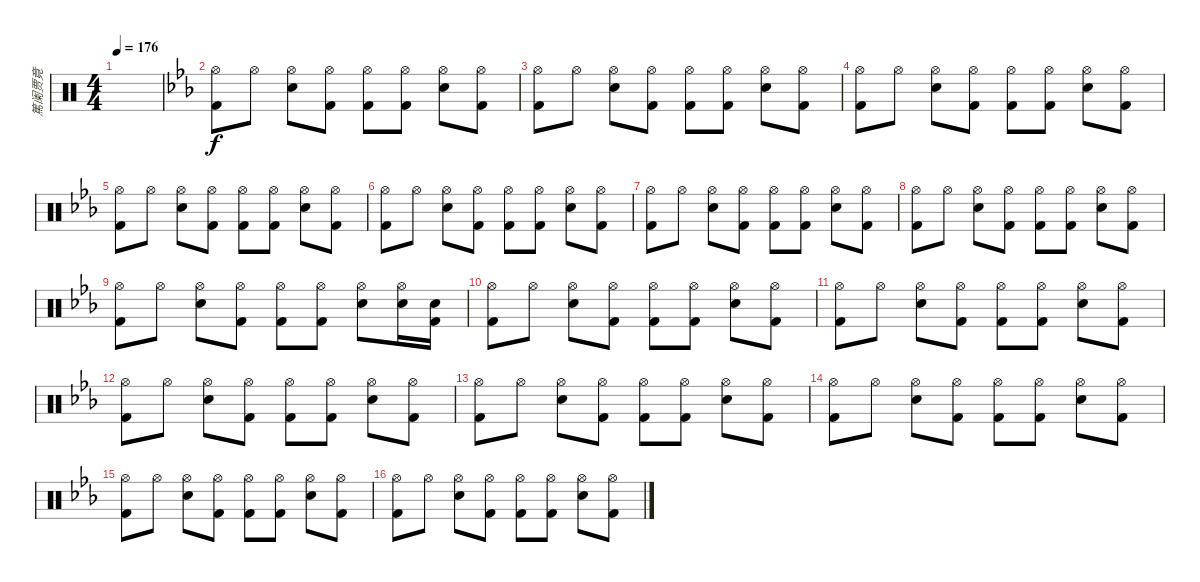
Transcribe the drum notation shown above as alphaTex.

\track ("篤阑贾竟" "篤阑贾竟") {instrument percussion}
\staff {score}
\articulation defaults
\ts (4 4)
\tempo 176
\clef neutral
\ks c
|
\ks eb
("Hi-Hat (open)" "Kick (hit) 2").8 "Hi-Hat (open)".8 ("Hi-Hat (open)" "Snare (hit) 2").8 ("Hi-Hat (open)" "Kick (hit) 2").8 ("Hi-Hat (open)" "Kick (hit) 2").8 ("Hi-Hat (open)" "Kick (hit) 2").8 ("Hi-Hat (open)" "Snare (hit) 2").8 ("Hi-Hat (open)" "Kick (hit) 2").8 |
("Hi-Hat (open)" "Kick (hit) 2").8 "Hi-Hat (open)".8 ("Hi-Hat (open)" "Snare (hit) 2").8 ("Hi-Hat (open)" "Kick (hit) 2").8 ("Hi-Hat (open)" "Kick (hit) 2").8 ("Hi-Hat (open)" "Kick (hit) 2").8 ("Hi-Hat (open)" "Snare (hit) 2").8 ("Hi-Hat (open)" "Kick (hit) 2").8 |
("Hi-Hat (open)" "Kick (hit) 2").8 "Hi-Hat (open)".8 ("Hi-Hat (open)" "Snare (hit) 2").8 ("Hi-Hat (open)" "Kick (hit) 2").8 ("Hi-Hat (open)" "Kick (hit) 2").8 ("Hi-Hat (open)" "Kick (hit) 2").8 ("Hi-Hat (open)" "Snare (hit) 2").8 ("Hi-Hat (open)" "Kick (hit) 2").8 |
("Hi-Hat (open)" "Kick (hit) 2").8 "Hi-Hat (open)".8 ("Hi-Hat (open)" "Snare (hit) 2").8 ("Hi-Hat (open)" "Kick (hit) 2").8 ("Hi-Hat (open)" "Kick (hit) 2").8 ("Hi-Hat (open)" "Kick (hit) 2").8 ("Hi-Hat (open)" "Snare (hit) 2").8 ("Hi-Hat (open)" "Kick (hit) 2").8 |
("Hi-Hat (open)" "Kick (hit) 2").8 "Hi-Hat (open)".8 ("Hi-Hat (open)" "Snare (hit) 2").8 ("Hi-Hat (open)" "Kick (hit) 2").8 ("Hi-Hat (open)" "Kick (hit) 2").8 ("Hi-Hat (open)" "Kick (hit) 2").8 ("Hi-Hat (open)" "Snare (hit) 2").8 ("Hi-Hat (open)" "Kick (hit) 2").8 |
("Hi-Hat (open)" "Kick (hit) 2").8 "Hi-Hat (open)".8 ("Hi-Hat (open)" "Snare (hit) 2").8 ("Hi-Hat (open)" "Kick (hit) 2").8 ("Hi-Hat (open)" "Kick (hit) 2").8 ("Hi-Hat (open)" "Kick (hit) 2").8 ("Hi-Hat (open)" "Snare (hit) 2").8 ("Hi-Hat (open)" "Kick (hit) 2").8 |
("Hi-Hat (open)" "Kick (hit) 2").8 "Hi-Hat (open)".8 ("Hi-Hat (open)" "Snare (hit) 2").8 ("Hi-Hat (open)" "Kick (hit) 2").8 ("Hi-Hat (open)" "Kick (hit) 2").8 ("Hi-Hat (open)" "Kick (hit) 2").8 ("Hi-Hat (open)" "Snare (hit) 2").8 ("Hi-Hat (open)" "Kick (hit) 2").8 |
("Hi-Hat (open)" "Kick (hit) 2").8 "Hi-Hat (open)".8 ("Hi-Hat (open)" "Snare (hit) 2").8 ("Hi-Hat (open)" "Kick (hit) 2").8 ("Hi-Hat (open)" "Kick (hit) 2").8 ("Hi-Hat (open)" "Kick (hit) 2").8 ("Hi-Hat (open)" "Snare (hit) 2").8 ("Hi-Hat (open)" "Snare (hit) 2").16 ("Snare (hit) 2" "Kick (hit) 2").16 |
("Hi-Hat (open)" "Kick (hit) 2").8 "Hi-Hat (open)".8 ("Hi-Hat (open)" "Snare (hit) 2").8 ("Hi-Hat (open)" "Kick (hit) 2").8 ("Hi-Hat (open)" "Kick (hit) 2").8 ("Hi-Hat (open)" "Kick (hit) 2").8 ("Hi-Hat (open)" "Snare (hit) 2").8 ("Hi-Hat (open)" "Kick (hit) 2").8 |
("Hi-Hat (open)" "Kick (hit) 2").8 "Hi-Hat (open)".8 ("Hi-Hat (open)" "Snare (hit) 2").8 ("Hi-Hat (open)" "Kick (hit) 2").8 ("Hi-Hat (open)" "Kick (hit) 2").8 ("Hi-Hat (open)" "Kick (hit) 2").8 ("Hi-Hat (open)" "Snare (hit) 2").8 ("Hi-Hat (open)" "Kick (hit) 2").8 |
("Hi-Hat (open)" "Kick (hit) 2").8 "Hi-Hat (open)".8 ("Hi-Hat (open)" "Snare (hit) 2").8 ("Hi-Hat (open)" "Kick (hit) 2").8 ("Hi-Hat (open)" "Kick (hit) 2").8 ("Hi-Hat (open)" "Kick (hit) 2").8 ("Hi-Hat (open)" "Snare (hit) 2").8 ("Hi-Hat (open)" "Kick (hit) 2").8 |
("Hi-Hat (open)" "Kick (hit) 2").8 "Hi-Hat (open)".8 ("Hi-Hat (open)" "Snare (hit) 2").8 ("Hi-Hat (open)" "Kick (hit) 2").8 ("Hi-Hat (open)" "Kick (hit) 2").8 ("Hi-Hat (open)" "Kick (hit) 2").8 ("Hi-Hat (open)" "Snare (hit) 2").8 ("Hi-Hat (open)" "Kick (hit) 2").8 |
("Hi-Hat (open)" "Kick (hit) 2").8 "Hi-Hat (open)".8 ("Hi-Hat (open)" "Snare (hit) 2").8 ("Hi-Hat (open)" "Kick (hit) 2").8 ("Hi-Hat (open)" "Kick (hit) 2").8 ("Hi-Hat (open)" "Kick (hit) 2").8 ("Hi-Hat (open)" "Snare (hit) 2").8 ("Hi-Hat (open)" "Kick (hit) 2").8 |
("Hi-Hat (open)" "Kick (hit) 2").8 "Hi-Hat (open)".8 ("Hi-Hat (open)" "Snare (hit) 2").8 ("Hi-Hat (open)" "Kick (hit) 2").8 ("Hi-Hat (open)" "Kick (hit) 2").8 ("Hi-Hat (open)" "Kick (hit) 2").8 ("Hi-Hat (open)" "Snare (hit) 2").8 ("Hi-Hat (open)" "Kick (hit) 2").8 |
("Hi-Hat (open)" "Kick (hit) 2").8 "Hi-Hat (open)".8 ("Hi-Hat (open)" "Snare (hit) 2").8 ("Hi-Hat (open)" "Kick (hit) 2").8 ("Hi-Hat (open)" "Kick (hit) 2").8 ("Hi-Hat (open)" "Kick (hit) 2").8 ("Hi-Hat (open)" "Snare (hit) 2").8 ("Hi-Hat (open)" "Kick (hit) 2").8
